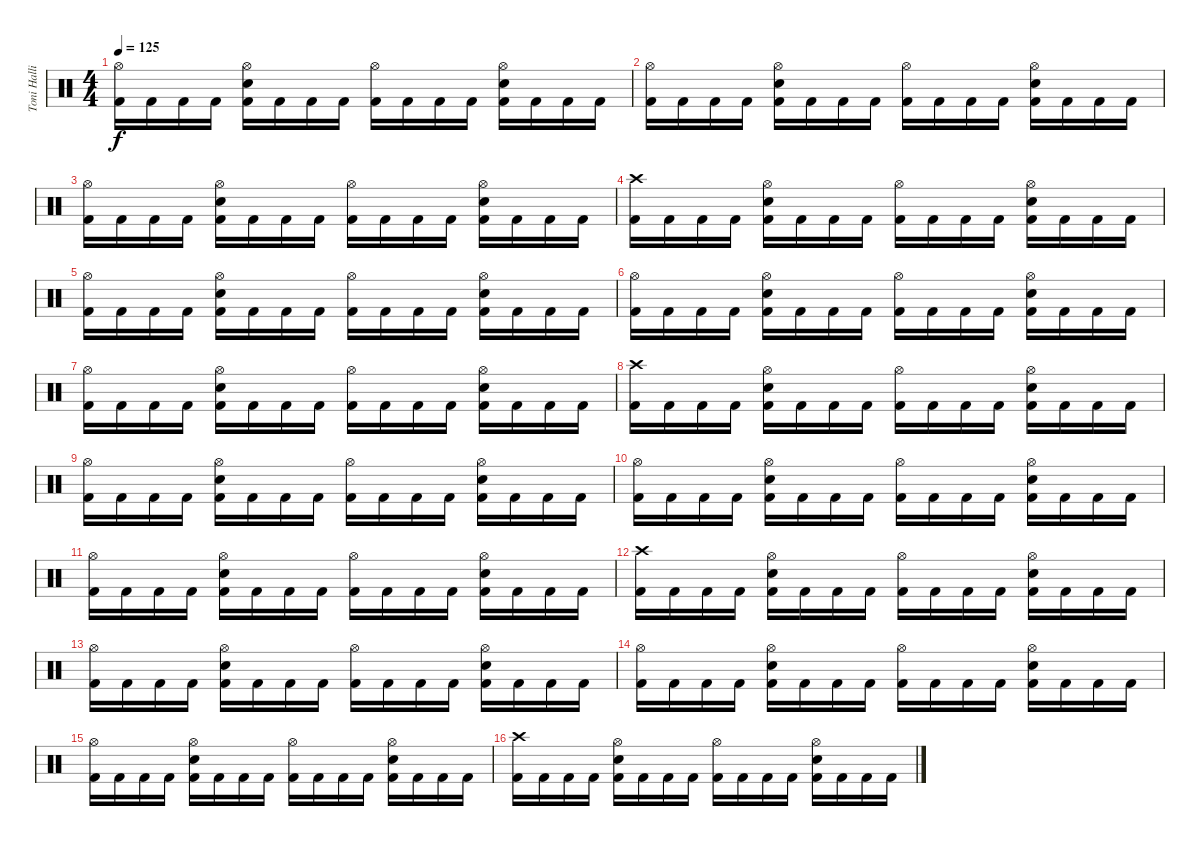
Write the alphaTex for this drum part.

\track ("Toni Hallio" "Toni Halli") {instrument percussion}
\staff {score}
\articulation defaults
\ts (4 4)
\tempo 125
\clef neutral
\ks c
("Hi-Hat (open)" "Kick (hit) 2").16{dy f} "Kick (hit) 2".16 "Kick (hit) 2".16 "Kick (hit) 2".16 ("Snare (hit) 2" "Hi-Hat (open)" "Kick (hit) 2").16 "Kick (hit) 2".16 "Kick (hit) 2".16 "Kick (hit) 2".16 ("Hi-Hat (open)" "Kick (hit) 2").16 "Kick (hit) 2".16 "Kick (hit) 2".16 "Kick (hit) 2".16 ("Snare (hit) 2" "Hi-Hat (open)" "Kick (hit) 2").16 "Kick (hit) 2".16 "Kick (hit) 2".16 "Kick (hit) 2".16 |
("Hi-Hat (open)" "Kick (hit) 2").16 "Kick (hit) 2".16 "Kick (hit) 2".16 "Kick (hit) 2".16 ("Snare (hit) 2" "Hi-Hat (open)" "Kick (hit) 2").16 "Kick (hit) 2".16 "Kick (hit) 2".16 "Kick (hit) 2".16 ("Hi-Hat (open)" "Kick (hit) 2").16 "Kick (hit) 2".16 "Kick (hit) 2".16 "Kick (hit) 2".16 ("Snare (hit) 2" "Hi-Hat (open)" "Kick (hit) 2").16 "Kick (hit) 2".16 "Kick (hit) 2".16 "Kick (hit) 2".16 |
("Hi-Hat (open)" "Kick (hit) 2").16 "Kick (hit) 2".16 "Kick (hit) 2".16 "Kick (hit) 2".16 ("Snare (hit) 2" "Hi-Hat (open)" "Kick (hit) 2").16 "Kick (hit) 2".16 "Kick (hit) 2".16 "Kick (hit) 2".16 ("Hi-Hat (open)" "Kick (hit) 2").16 "Kick (hit) 2".16 "Kick (hit) 2".16 "Kick (hit) 2".16 ("Snare (hit) 2" "Hi-Hat (open)" "Kick (hit) 2").16 "Kick (hit) 2".16 "Kick (hit) 2".16 "Kick (hit) 2".16 |
("Crash high (hit)" "Kick (hit) 2").16 "Kick (hit) 2".16 "Kick (hit) 2".16 "Kick (hit) 2".16 ("Snare (hit) 2" "Hi-Hat (open)" "Kick (hit) 2").16 "Kick (hit) 2".16 "Kick (hit) 2".16 "Kick (hit) 2".16 ("Hi-Hat (open)" "Kick (hit) 2").16 "Kick (hit) 2".16 "Kick (hit) 2".16 "Kick (hit) 2".16 ("Snare (hit) 2" "Hi-Hat (open)" "Kick (hit) 2").16 "Kick (hit) 2".16 "Kick (hit) 2".16 "Kick (hit) 2".16 |
("Hi-Hat (open)" "Kick (hit) 2").16 "Kick (hit) 2".16 "Kick (hit) 2".16 "Kick (hit) 2".16 ("Snare (hit) 2" "Hi-Hat (open)" "Kick (hit) 2").16 "Kick (hit) 2".16 "Kick (hit) 2".16 "Kick (hit) 2".16 ("Hi-Hat (open)" "Kick (hit) 2").16 "Kick (hit) 2".16 "Kick (hit) 2".16 "Kick (hit) 2".16 ("Snare (hit) 2" "Hi-Hat (open)" "Kick (hit) 2").16 "Kick (hit) 2".16 "Kick (hit) 2".16 "Kick (hit) 2".16 |
("Hi-Hat (open)" "Kick (hit) 2").16 "Kick (hit) 2".16 "Kick (hit) 2".16 "Kick (hit) 2".16 ("Snare (hit) 2" "Hi-Hat (open)" "Kick (hit) 2").16 "Kick (hit) 2".16 "Kick (hit) 2".16 "Kick (hit) 2".16 ("Hi-Hat (open)" "Kick (hit) 2").16 "Kick (hit) 2".16 "Kick (hit) 2".16 "Kick (hit) 2".16 ("Snare (hit) 2" "Hi-Hat (open)" "Kick (hit) 2").16 "Kick (hit) 2".16 "Kick (hit) 2".16 "Kick (hit) 2".16 |
("Hi-Hat (open)" "Kick (hit) 2").16 "Kick (hit) 2".16 "Kick (hit) 2".16 "Kick (hit) 2".16 ("Snare (hit) 2" "Hi-Hat (open)" "Kick (hit) 2").16 "Kick (hit) 2".16 "Kick (hit) 2".16 "Kick (hit) 2".16 ("Hi-Hat (open)" "Kick (hit) 2").16 "Kick (hit) 2".16 "Kick (hit) 2".16 "Kick (hit) 2".16 ("Snare (hit) 2" "Hi-Hat (open)" "Kick (hit) 2").16 "Kick (hit) 2".16 "Kick (hit) 2".16 "Kick (hit) 2".16 |
("Crash high (hit)" "Kick (hit) 2").16 "Kick (hit) 2".16 "Kick (hit) 2".16 "Kick (hit) 2".16 ("Snare (hit) 2" "Hi-Hat (open)" "Kick (hit) 2").16 "Kick (hit) 2".16 "Kick (hit) 2".16 "Kick (hit) 2".16 ("Hi-Hat (open)" "Kick (hit) 2").16 "Kick (hit) 2".16 "Kick (hit) 2".16 "Kick (hit) 2".16 ("Snare (hit) 2" "Hi-Hat (open)" "Kick (hit) 2").16 "Kick (hit) 2".16 "Kick (hit) 2".16 "Kick (hit) 2".16 |
("Hi-Hat (open)" "Kick (hit) 2").16 "Kick (hit) 2".16 "Kick (hit) 2".16 "Kick (hit) 2".16 ("Snare (hit) 2" "Hi-Hat (open)" "Kick (hit) 2").16 "Kick (hit) 2".16 "Kick (hit) 2".16 "Kick (hit) 2".16 ("Hi-Hat (open)" "Kick (hit) 2").16 "Kick (hit) 2".16 "Kick (hit) 2".16 "Kick (hit) 2".16 ("Snare (hit) 2" "Hi-Hat (open)" "Kick (hit) 2").16 "Kick (hit) 2".16 "Kick (hit) 2".16 "Kick (hit) 2".16 |
("Hi-Hat (open)" "Kick (hit) 2").16 "Kick (hit) 2".16 "Kick (hit) 2".16 "Kick (hit) 2".16 ("Snare (hit) 2" "Hi-Hat (open)" "Kick (hit) 2").16 "Kick (hit) 2".16 "Kick (hit) 2".16 "Kick (hit) 2".16 ("Hi-Hat (open)" "Kick (hit) 2").16 "Kick (hit) 2".16 "Kick (hit) 2".16 "Kick (hit) 2".16 ("Snare (hit) 2" "Hi-Hat (open)" "Kick (hit) 2").16 "Kick (hit) 2".16 "Kick (hit) 2".16 "Kick (hit) 2".16 |
("Hi-Hat (open)" "Kick (hit) 2").16 "Kick (hit) 2".16 "Kick (hit) 2".16 "Kick (hit) 2".16 ("Snare (hit) 2" "Hi-Hat (open)" "Kick (hit) 2").16 "Kick (hit) 2".16 "Kick (hit) 2".16 "Kick (hit) 2".16 ("Hi-Hat (open)" "Kick (hit) 2").16 "Kick (hit) 2".16 "Kick (hit) 2".16 "Kick (hit) 2".16 ("Snare (hit) 2" "Hi-Hat (open)" "Kick (hit) 2").16 "Kick (hit) 2".16 "Kick (hit) 2".16 "Kick (hit) 2".16 |
("Crash high (hit)" "Kick (hit) 2").16 "Kick (hit) 2".16 "Kick (hit) 2".16 "Kick (hit) 2".16 ("Snare (hit) 2" "Hi-Hat (open)" "Kick (hit) 2").16 "Kick (hit) 2".16 "Kick (hit) 2".16 "Kick (hit) 2".16 ("Hi-Hat (open)" "Kick (hit) 2").16 "Kick (hit) 2".16 "Kick (hit) 2".16 "Kick (hit) 2".16 ("Snare (hit) 2" "Hi-Hat (open)" "Kick (hit) 2").16 "Kick (hit) 2".16 "Kick (hit) 2".16 "Kick (hit) 2".16 |
("Hi-Hat (open)" "Kick (hit) 2").16 "Kick (hit) 2".16 "Kick (hit) 2".16 "Kick (hit) 2".16 ("Snare (hit) 2" "Hi-Hat (open)" "Kick (hit) 2").16 "Kick (hit) 2".16 "Kick (hit) 2".16 "Kick (hit) 2".16 ("Hi-Hat (open)" "Kick (hit) 2").16 "Kick (hit) 2".16 "Kick (hit) 2".16 "Kick (hit) 2".16 ("Snare (hit) 2" "Hi-Hat (open)" "Kick (hit) 2").16 "Kick (hit) 2".16 "Kick (hit) 2".16 "Kick (hit) 2".16 |
("Hi-Hat (open)" "Kick (hit) 2").16 "Kick (hit) 2".16 "Kick (hit) 2".16 "Kick (hit) 2".16 ("Snare (hit) 2" "Hi-Hat (open)" "Kick (hit) 2").16 "Kick (hit) 2".16 "Kick (hit) 2".16 "Kick (hit) 2".16 ("Hi-Hat (open)" "Kick (hit) 2").16 "Kick (hit) 2".16 "Kick (hit) 2".16 "Kick (hit) 2".16 ("Snare (hit) 2" "Hi-Hat (open)" "Kick (hit) 2").16 "Kick (hit) 2".16 "Kick (hit) 2".16 "Kick (hit) 2".16 |
("Hi-Hat (open)" "Kick (hit) 2").16 "Kick (hit) 2".16 "Kick (hit) 2".16 "Kick (hit) 2".16 ("Snare (hit) 2" "Hi-Hat (open)" "Kick (hit) 2").16 "Kick (hit) 2".16 "Kick (hit) 2".16 "Kick (hit) 2".16 ("Hi-Hat (open)" "Kick (hit) 2").16 "Kick (hit) 2".16 "Kick (hit) 2".16 "Kick (hit) 2".16 ("Snare (hit) 2" "Hi-Hat (open)" "Kick (hit) 2").16 "Kick (hit) 2".16 "Kick (hit) 2".16 "Kick (hit) 2".16 |
("Crash high (hit)" "Kick (hit) 2").16{volume 10} "Kick (hit) 2".16 "Kick (hit) 2".16 "Kick (hit) 2".16 ("Snare (hit) 2" "Hi-Hat (open)" "Kick (hit) 2").16 "Kick (hit) 2".16 "Kick (hit) 2".16 "Kick (hit) 2".16 ("Hi-Hat (open)" "Kick (hit) 2").16 "Kick (hit) 2".16 "Kick (hit) 2".16 "Kick (hit) 2".16 ("Snare (hit) 2" "Hi-Hat (open)" "Kick (hit) 2").16 "Kick (hit) 2".16 "Kick (hit) 2".16 "Kick (hit) 2".16
